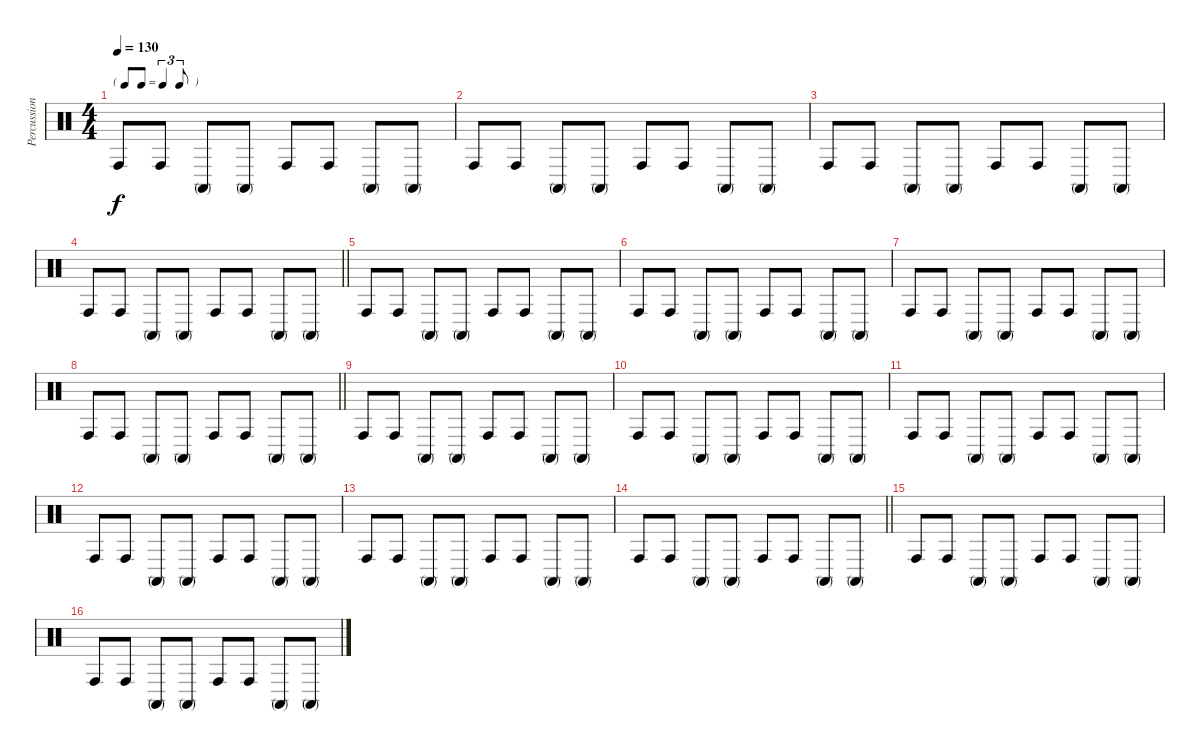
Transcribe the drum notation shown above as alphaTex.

\track ("Percussion" "Percussion") {instrument percussion}
\staff {score}
\articulation defaults
\ts (4 4)
\tf triplet8th
\tempo 130
\clef neutral
\ks c "Conga high (hit)".8{dy f} "Conga high (hit)".8 "Conga high (mute)".8 "Conga high (mute)".8 "Conga high (hit)".8 "Conga high (hit)".8 "Conga high (mute)".8 "Conga high (mute)".8
|
"Conga high (hit)".8 "Conga high (hit)".8 "Conga high (mute)".8 "Conga high (mute)".8 "Conga high (hit)".8 "Conga high (hit)".8 "Conga high (mute)".8 "Conga high (mute)".8 |
"Conga high (hit)".8 "Conga high (hit)".8 "Conga high (mute)".8 "Conga high (mute)".8 "Conga high (hit)".8 "Conga high (hit)".8 "Conga high (mute)".8 "Conga high (mute)".8 |
\barLineRight lightlight "Conga high (hit)".8 "Conga high (hit)".8 "Conga high (mute)".8 "Conga high (mute)".8 "Conga high (hit)".8 "Conga high (hit)".8 "Conga high (mute)".8 "Conga high (mute)".8
|
"Conga high (hit)".8 "Conga high (hit)".8 "Conga high (mute)".8 "Conga high (mute)".8 "Conga high (hit)".8 "Conga high (hit)".8 "Conga high (mute)".8 "Conga high (mute)".8 |
"Conga high (hit)".8 "Conga high (hit)".8 "Conga high (mute)".8 "Conga high (mute)".8 "Conga high (hit)".8 "Conga high (hit)".8 "Conga high (mute)".8 "Conga high (mute)".8 |
"Conga high (hit)".8 "Conga high (hit)".8 "Conga high (mute)".8 "Conga high (mute)".8 "Conga high (hit)".8 "Conga high (hit)".8 "Conga high (mute)".8 "Conga high (mute)".8 |
\barLineRight lightlight "Conga high (hit)".8 "Conga high (hit)".8 "Conga high (mute)".8 "Conga high (mute)".8 "Conga high (hit)".8 "Conga high (hit)".8 "Conga high (mute)".8 "Conga high (mute)".8
|
"Conga high (hit)".8 "Conga high (hit)".8 "Conga high (mute)".8 "Conga high (mute)".8 "Conga high (hit)".8 "Conga high (hit)".8 "Conga high (mute)".8 "Conga high (mute)".8 |
"Conga high (hit)".8 "Conga high (hit)".8 "Conga high (mute)".8 "Conga high (mute)".8 "Conga high (hit)".8 "Conga high (hit)".8 "Conga high (mute)".8 "Conga high (mute)".8 |
"Conga high (hit)".8 "Conga high (hit)".8 "Conga high (mute)".8 "Conga high (mute)".8 "Conga high (hit)".8 "Conga high (hit)".8 "Conga high (mute)".8 "Conga high (mute)".8 |
"Conga high (hit)".8 "Conga high (hit)".8 "Conga high (mute)".8 "Conga high (mute)".8 "Conga high (hit)".8 "Conga high (hit)".8 "Conga high (mute)".8 "Conga high (mute)".8 |
"Conga high (hit)".8 "Conga high (hit)".8 "Conga high (mute)".8 "Conga high (mute)".8 "Conga high (hit)".8 "Conga high (hit)".8 "Conga high (mute)".8 "Conga high (mute)".8 |
\barLineRight lightlight "Conga high (hit)".8 "Conga high (hit)".8 "Conga high (mute)".8 "Conga high (mute)".8 "Conga high (hit)".8 "Conga high (hit)".8 "Conga high (mute)".8 "Conga high (mute)".8
|
"Conga high (hit)".8 "Conga high (hit)".8 "Conga high (mute)".8 "Conga high (mute)".8 "Conga high (hit)".8 "Conga high (hit)".8 "Conga high (mute)".8 "Conga high (mute)".8 |
"Conga high (hit)".8 "Conga high (hit)".8 "Conga high (mute)".8 "Conga high (mute)".8 "Conga high (hit)".8 "Conga high (hit)".8 "Conga high (mute)".8 "Conga high (mute)".8
